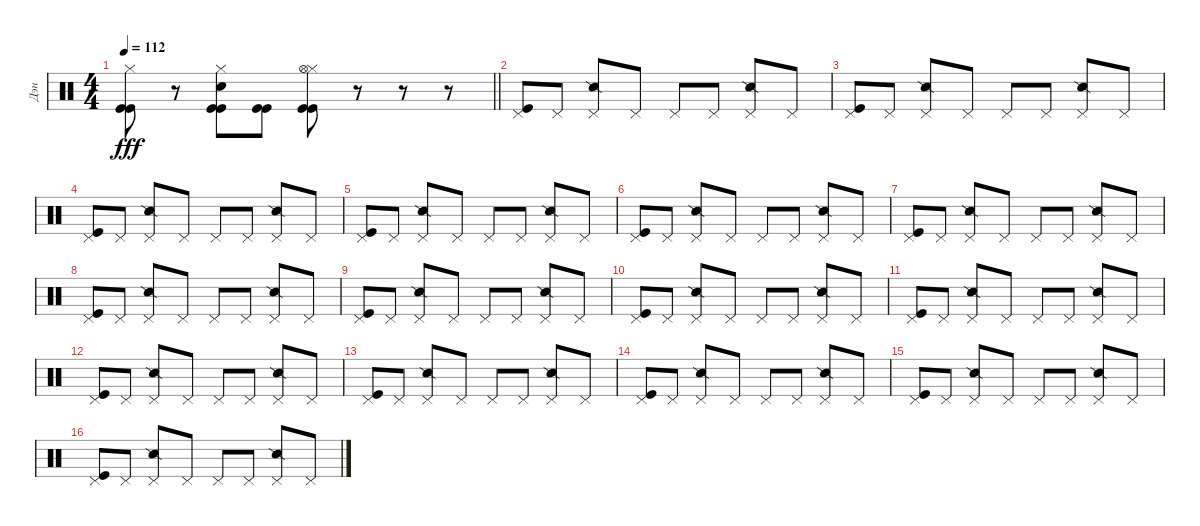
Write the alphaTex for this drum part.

\track ("Дэн" "Дэн") {instrument percussion}
\staff {score}
\articulation defaults
\ts (4 4)
\tempo 112
\clef neutral
\barLineRight lightlight
\ks c
("Hi-Hat (closed)" "Kick (hit)" "Kick (hit)").8{dy fff} r.8 ("Hi-Hat (closed)" "Kick (hit)" "Kick (hit)" "Electric Snare (hit)").8 ("Kick (hit)" "Kick (hit)").8 ("Hi-Hat (closed)" "Kick (hit)" "Kick (hit)" "Hi-Hat (open)").8 r.8 r.8 r.8 |
("Pedal Hi-Hat (hit)" "Kick (hit)").8 "Pedal Hi-Hat (hit)".8 ("Pedal Hi-Hat (hit)" "Snare (side stick) 2").8 "Pedal Hi-Hat (hit)".8 "Pedal Hi-Hat (hit)".8 "Pedal Hi-Hat (hit)".8 ("Pedal Hi-Hat (hit)" "Snare (side stick) 2").8 "Pedal Hi-Hat (hit)".8 |
("Pedal Hi-Hat (hit)" "Kick (hit)").8 "Pedal Hi-Hat (hit)".8 ("Pedal Hi-Hat (hit)" "Snare (side stick) 2").8 "Pedal Hi-Hat (hit)".8 "Pedal Hi-Hat (hit)".8 "Pedal Hi-Hat (hit)".8 ("Pedal Hi-Hat (hit)" "Snare (side stick) 2").8 "Pedal Hi-Hat (hit)".8 |
("Pedal Hi-Hat (hit)" "Kick (hit)").8 "Pedal Hi-Hat (hit)".8 ("Pedal Hi-Hat (hit)" "Snare (side stick) 2").8 "Pedal Hi-Hat (hit)".8 "Pedal Hi-Hat (hit)".8 "Pedal Hi-Hat (hit)".8 ("Pedal Hi-Hat (hit)" "Snare (side stick) 2").8 "Pedal Hi-Hat (hit)".8 |
("Pedal Hi-Hat (hit)" "Kick (hit)").8 "Pedal Hi-Hat (hit)".8 ("Pedal Hi-Hat (hit)" "Snare (side stick) 2").8 "Pedal Hi-Hat (hit)".8 "Pedal Hi-Hat (hit)".8 "Pedal Hi-Hat (hit)".8 ("Pedal Hi-Hat (hit)" "Snare (side stick) 2").8 "Pedal Hi-Hat (hit)".8 |
("Pedal Hi-Hat (hit)" "Kick (hit)").8 "Pedal Hi-Hat (hit)".8 ("Pedal Hi-Hat (hit)" "Snare (side stick) 2").8 "Pedal Hi-Hat (hit)".8 "Pedal Hi-Hat (hit)".8 "Pedal Hi-Hat (hit)".8 ("Pedal Hi-Hat (hit)" "Snare (side stick) 2").8 "Pedal Hi-Hat (hit)".8 |
("Pedal Hi-Hat (hit)" "Kick (hit)").8 "Pedal Hi-Hat (hit)".8 ("Pedal Hi-Hat (hit)" "Snare (side stick) 2").8 "Pedal Hi-Hat (hit)".8 "Pedal Hi-Hat (hit)".8 "Pedal Hi-Hat (hit)".8 ("Pedal Hi-Hat (hit)" "Snare (side stick) 2").8 "Pedal Hi-Hat (hit)".8 |
("Pedal Hi-Hat (hit)" "Kick (hit)").8 "Pedal Hi-Hat (hit)".8 ("Pedal Hi-Hat (hit)" "Snare (side stick) 2").8 "Pedal Hi-Hat (hit)".8 "Pedal Hi-Hat (hit)".8 "Pedal Hi-Hat (hit)".8 ("Pedal Hi-Hat (hit)" "Snare (side stick) 2").8 "Pedal Hi-Hat (hit)".8 |
("Pedal Hi-Hat (hit)" "Kick (hit)").8 "Pedal Hi-Hat (hit)".8 ("Pedal Hi-Hat (hit)" "Snare (side stick) 2").8 "Pedal Hi-Hat (hit)".8 "Pedal Hi-Hat (hit)".8 "Pedal Hi-Hat (hit)".8 ("Pedal Hi-Hat (hit)" "Snare (side stick) 2").8 "Pedal Hi-Hat (hit)".8 |
("Pedal Hi-Hat (hit)" "Kick (hit)").8 "Pedal Hi-Hat (hit)".8 ("Pedal Hi-Hat (hit)" "Snare (side stick) 2").8 "Pedal Hi-Hat (hit)".8 "Pedal Hi-Hat (hit)".8 "Pedal Hi-Hat (hit)".8 ("Pedal Hi-Hat (hit)" "Snare (side stick) 2").8 "Pedal Hi-Hat (hit)".8 |
("Pedal Hi-Hat (hit)" "Kick (hit)").8 "Pedal Hi-Hat (hit)".8 ("Pedal Hi-Hat (hit)" "Snare (side stick) 2").8 "Pedal Hi-Hat (hit)".8 "Pedal Hi-Hat (hit)".8 "Pedal Hi-Hat (hit)".8 ("Pedal Hi-Hat (hit)" "Snare (side stick) 2").8 "Pedal Hi-Hat (hit)".8 |
("Pedal Hi-Hat (hit)" "Kick (hit)").8 "Pedal Hi-Hat (hit)".8 ("Pedal Hi-Hat (hit)" "Snare (side stick) 2").8 "Pedal Hi-Hat (hit)".8 "Pedal Hi-Hat (hit)".8 "Pedal Hi-Hat (hit)".8 ("Pedal Hi-Hat (hit)" "Snare (side stick) 2").8 "Pedal Hi-Hat (hit)".8 |
("Pedal Hi-Hat (hit)" "Kick (hit)").8 "Pedal Hi-Hat (hit)".8 ("Pedal Hi-Hat (hit)" "Snare (side stick) 2").8 "Pedal Hi-Hat (hit)".8 "Pedal Hi-Hat (hit)".8 "Pedal Hi-Hat (hit)".8 ("Pedal Hi-Hat (hit)" "Snare (side stick) 2").8 "Pedal Hi-Hat (hit)".8 |
("Pedal Hi-Hat (hit)" "Kick (hit)").8 "Pedal Hi-Hat (hit)".8 ("Pedal Hi-Hat (hit)" "Snare (side stick) 2").8 "Pedal Hi-Hat (hit)".8 "Pedal Hi-Hat (hit)".8 "Pedal Hi-Hat (hit)".8 ("Pedal Hi-Hat (hit)" "Snare (side stick) 2").8 "Pedal Hi-Hat (hit)".8 |
("Pedal Hi-Hat (hit)" "Kick (hit)").8 "Pedal Hi-Hat (hit)".8 ("Pedal Hi-Hat (hit)" "Snare (side stick) 2").8 "Pedal Hi-Hat (hit)".8 "Pedal Hi-Hat (hit)".8 "Pedal Hi-Hat (hit)".8 ("Pedal Hi-Hat (hit)" "Snare (side stick) 2").8 "Pedal Hi-Hat (hit)".8 |
("Pedal Hi-Hat (hit)" "Kick (hit)").8 "Pedal Hi-Hat (hit)".8 ("Pedal Hi-Hat (hit)" "Snare (side stick) 2").8 "Pedal Hi-Hat (hit)".8 "Pedal Hi-Hat (hit)".8 "Pedal Hi-Hat (hit)".8 ("Pedal Hi-Hat (hit)" "Snare (side stick) 2").8 "Pedal Hi-Hat (hit)".8
